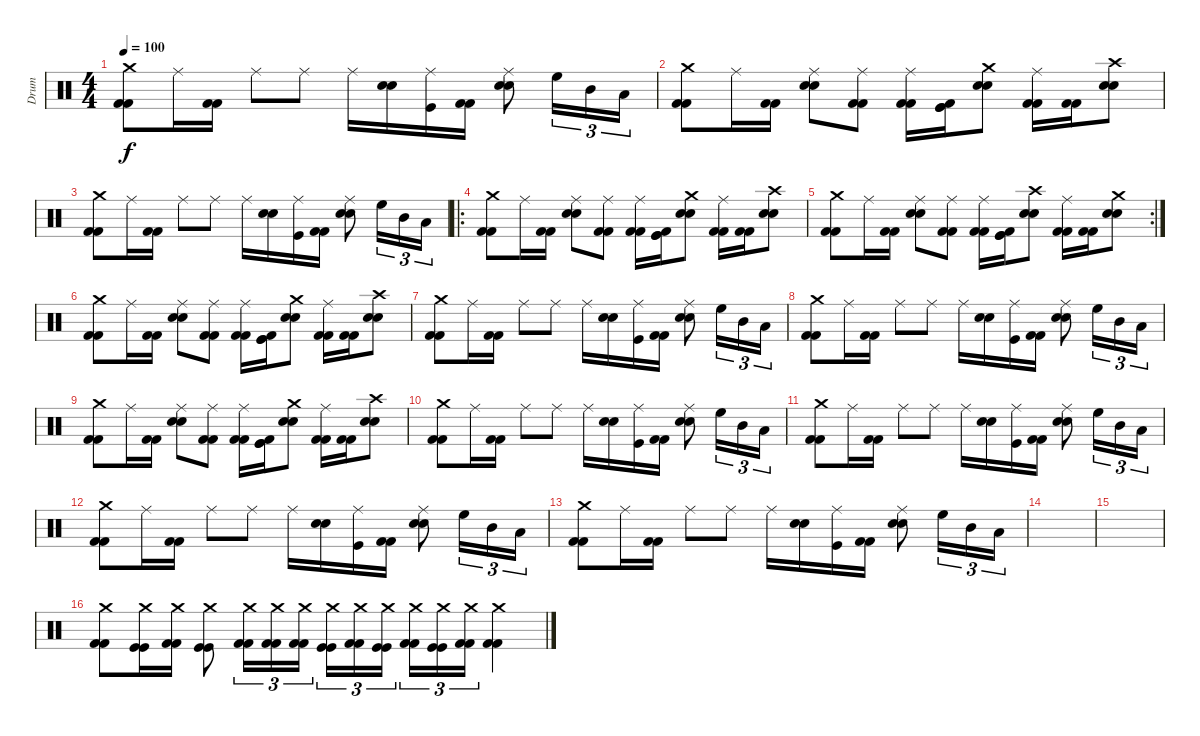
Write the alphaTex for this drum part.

\track ("Drum" "Drum") {instrument percussion}
\staff {score}
\articulation defaults
\ts (4 4)
\tempo 100
\clef neutral
\ks c
("Crash medium (hit)" "Kick (hit) 2" "Kick (hit) 2").8{dy f} "Ride (middle)".16 ("Kick (hit) 2" "Kick (hit) 2").16 "Ride (middle)".8 "Ride (middle)".8 "Ride (middle)".16 ("Snare (hit) 2" "Snare (hit) 2").16 ("Ride (middle)" "Kick (hit)").16 ("Kick (hit) 2" "Kick (hit) 2").16 ("Ride (middle)" "Snare (hit) 2" "Snare (hit) 2").8 "High Floor Tom (hit)".16{tu (3 2)} "Mid Tom (hit)".16{tu (3 2)} "Low Tom (hit)".16{tu (3 2)} |
("Crash medium (hit)" "Kick (hit) 2" "Kick (hit) 2").8 "Ride (middle)".16 ("Kick (hit) 2" "Kick (hit) 2").16 ("Ride (middle)" "Snare (hit) 2" "Snare (hit) 2").8 ("Ride (middle)" "Kick (hit) 2" "Kick (hit) 2").8 ("Ride (middle)" "Kick (hit) 2" "Kick (hit) 2").16 ("Kick (hit) 2" "Kick (hit)" "Kick (hit)").16 ("Crash medium (hit)" "Snare (hit) 2" "Snare (hit) 2").8 ("Ride (middle)" "Kick (hit) 2" "Kick (hit) 2").16 ("Kick (hit) 2" "Kick (hit) 2").16 ("Crash high (hit)" "Snare (hit) 2" "Snare (hit) 2").8 |
("Crash medium (hit)" "Kick (hit) 2" "Kick (hit) 2").8 "Ride (middle)".16 ("Kick (hit) 2" "Kick (hit) 2").16 "Ride (middle)".8 "Ride (middle)".8 "Ride (middle)".16 ("Snare (hit) 2" "Snare (hit) 2").16 ("Ride (middle)" "Kick (hit)").16 ("Kick (hit) 2" "Kick (hit) 2").16 ("Ride (middle)" "Snare (hit) 2" "Snare (hit) 2").8 "High Floor Tom (hit)".16{tu (3 2)} "Mid Tom (hit)".16{tu (3 2)} "Low Tom (hit)".16{tu (3 2)} |
\ro
("Crash medium (hit)" "Kick (hit) 2" "Kick (hit) 2").8 "Ride (middle)".16 ("Kick (hit) 2" "Kick (hit) 2").16 ("Ride (middle)" "Snare (hit) 2" "Snare (hit) 2").8 ("Ride (middle)" "Kick (hit) 2" "Kick (hit) 2").8 ("Ride (middle)" "Kick (hit) 2" "Kick (hit) 2").16 ("Kick (hit) 2" "Kick (hit)" "Kick (hit)").16 ("Crash medium (hit)" "Snare (hit) 2" "Snare (hit) 2").8 ("Ride (middle)" "Kick (hit) 2" "Kick (hit) 2").16 ("Kick (hit) 2" "Kick (hit) 2").16 ("Crash high (hit)" "Snare (hit) 2" "Snare (hit) 2").8 |
\rc 2
("Crash medium (hit)" "Kick (hit) 2" "Kick (hit) 2").8 "Ride (middle)".16 ("Kick (hit) 2" "Kick (hit) 2").16 ("Ride (middle)" "Snare (hit) 2" "Snare (hit) 2").8 ("Ride (middle)" "Kick (hit) 2" "Kick (hit) 2").8 ("Ride (middle)" "Kick (hit) 2" "Kick (hit) 2").16 ("Kick (hit) 2" "Kick (hit)" "Kick (hit)").16 ("Crash high (hit)" "Snare (hit) 2" "Snare (hit) 2").8 ("Ride (middle)" "Kick (hit) 2" "Kick (hit) 2").16 ("Kick (hit) 2" "Kick (hit) 2").16 ("Crash medium (hit)" "Snare (hit) 2" "Snare (hit) 2").8 |
("Crash medium (hit)" "Kick (hit) 2" "Kick (hit) 2").8 "Ride (middle)".16 ("Kick (hit) 2" "Kick (hit) 2").16 ("Ride (middle)" "Snare (hit) 2" "Snare (hit) 2").8 ("Ride (middle)" "Kick (hit) 2" "Kick (hit) 2").8 ("Ride (middle)" "Kick (hit) 2" "Kick (hit) 2").16 ("Kick (hit) 2" "Kick (hit)" "Kick (hit)").16 ("Crash medium (hit)" "Snare (hit) 2" "Snare (hit) 2").8 ("Ride (middle)" "Kick (hit) 2" "Kick (hit) 2").16 ("Kick (hit) 2" "Kick (hit) 2").16 ("Crash high (hit)" "Snare (hit) 2" "Snare (hit) 2").8 |
("Crash medium (hit)" "Kick (hit) 2" "Kick (hit) 2").8 "Ride (middle)".16 ("Kick (hit) 2" "Kick (hit) 2").16 "Ride (middle)".8 "Ride (middle)".8 "Ride (middle)".16 ("Snare (hit) 2" "Snare (hit) 2").16 ("Ride (middle)" "Kick (hit)").16 ("Kick (hit) 2" "Kick (hit) 2").16 ("Ride (middle)" "Snare (hit) 2" "Snare (hit) 2").8 "High Floor Tom (hit)".16{tu (3 2)} "Mid Tom (hit)".16{tu (3 2)} "Low Tom (hit)".16{tu (3 2)} |
("Crash medium (hit)" "Kick (hit) 2" "Kick (hit) 2").8 "Ride (middle)".16 ("Kick (hit) 2" "Kick (hit) 2").16 "Ride (middle)".8 "Ride (middle)".8 "Ride (middle)".16 ("Snare (hit) 2" "Snare (hit) 2").16 ("Ride (middle)" "Kick (hit)").16 ("Kick (hit) 2" "Kick (hit) 2").16 ("Ride (middle)" "Snare (hit) 2" "Snare (hit) 2").8 "High Floor Tom (hit)".16{tu (3 2)} "Mid Tom (hit)".16{tu (3 2)} "Low Tom (hit)".16{tu (3 2)} |
("Crash medium (hit)" "Kick (hit) 2" "Kick (hit) 2").8 "Ride (middle)".16 ("Kick (hit) 2" "Kick (hit) 2").16 ("Ride (middle)" "Snare (hit) 2" "Snare (hit) 2").8 ("Ride (middle)" "Kick (hit) 2" "Kick (hit) 2").8 ("Ride (middle)" "Kick (hit) 2" "Kick (hit) 2").16 ("Kick (hit) 2" "Kick (hit)" "Kick (hit)").16 ("Crash medium (hit)" "Snare (hit) 2" "Snare (hit) 2").8 ("Ride (middle)" "Kick (hit) 2" "Kick (hit) 2").16 ("Kick (hit) 2" "Kick (hit) 2").16 ("Crash high (hit)" "Snare (hit) 2" "Snare (hit) 2").8 |
("Crash medium (hit)" "Kick (hit) 2" "Kick (hit) 2").8 "Ride (middle)".16 ("Kick (hit) 2" "Kick (hit) 2").16 "Ride (middle)".8 "Ride (middle)".8 "Ride (middle)".16 ("Snare (hit) 2" "Snare (hit) 2").16 ("Ride (middle)" "Kick (hit)").16 ("Kick (hit) 2" "Kick (hit) 2").16 ("Ride (middle)" "Snare (hit) 2" "Snare (hit) 2").8 "High Floor Tom (hit)".16{tu (3 2)} "Mid Tom (hit)".16{tu (3 2)} "Low Tom (hit)".16{tu (3 2)} |
("Crash medium (hit)" "Kick (hit) 2" "Kick (hit) 2").8 "Ride (middle)".16 ("Kick (hit) 2" "Kick (hit) 2").16 "Ride (middle)".8 "Ride (middle)".8 "Ride (middle)".16 ("Snare (hit) 2" "Snare (hit) 2").16 ("Ride (middle)" "Kick (hit)").16 ("Kick (hit) 2" "Kick (hit) 2").16 ("Ride (middle)" "Snare (hit) 2" "Snare (hit) 2").8 "High Floor Tom (hit)".16{tu (3 2)} "Mid Tom (hit)".16{tu (3 2)} "Low Tom (hit)".16{tu (3 2)} |
("Crash medium (hit)" "Kick (hit) 2" "Kick (hit) 2").8 "Ride (middle)".16 ("Kick (hit) 2" "Kick (hit) 2").16 "Ride (middle)".8 "Ride (middle)".8 "Ride (middle)".16 ("Snare (hit) 2" "Snare (hit) 2").16 ("Ride (middle)" "Kick (hit)").16 ("Kick (hit) 2" "Kick (hit) 2").16 ("Ride (middle)" "Snare (hit) 2" "Snare (hit) 2").8 "High Floor Tom (hit)".16{tu (3 2)} "Mid Tom (hit)".16{tu (3 2)} "Low Tom (hit)".16{tu (3 2)} |
("Crash medium (hit)" "Kick (hit) 2" "Kick (hit) 2").8 "Ride (middle)".16 ("Kick (hit) 2" "Kick (hit) 2").16 "Ride (middle)".8 "Ride (middle)".8 "Ride (middle)".16 ("Snare (hit) 2" "Snare (hit) 2").16 ("Ride (middle)" "Kick (hit)").16 ("Kick (hit) 2" "Kick (hit) 2").16 ("Ride (middle)" "Snare (hit) 2" "Snare (hit) 2").8 "High Floor Tom (hit)".16{tu (3 2)} "Mid Tom (hit)".16{tu (3 2)} "Low Tom (hit)".16{tu (3 2)} |
|
|
("Crash medium (hit)" "Kick (hit) 2" "Kick (hit) 2").8 ("Crash medium (hit)" "Kick (hit)" "Kick (hit)").16 ("Crash medium (hit)" "Kick (hit) 2" "Kick (hit) 2").16 ("Crash medium (hit)" "Kick (hit)" "Kick (hit)").8 ("Crash medium (hit)" "Kick (hit) 2" "Kick (hit) 2").16{tu (3 2)} ("Crash medium (hit)" "Kick (hit) 2" "Kick (hit) 2").16{tu (3 2)} ("Crash medium (hit)" "Kick (hit) 2" "Kick (hit) 2").16{tu (3 2)} ("Crash medium (hit)" "Kick (hit)" "Kick (hit)").16{tu (3 2)} ("Crash medium (hit)" "Kick (hit) 2" "Kick (hit) 2").16{tu (3 2)} ("Crash medium (hit)" "Kick (hit)" "Kick (hit)").16{tu (3 2)} ("Crash medium (hit)" "Kick (hit) 2" "Kick (hit) 2").16{tu (3 2)} ("Crash medium (hit)" "Kick (hit)" "Kick (hit)").16{tu (3 2)} ("Crash medium (hit)" "Kick (hit) 2" "Kick (hit) 2").16{tu (3 2)} ("Crash medium (hit)" "Kick (hit) 2" "Kick (hit) 2").4
